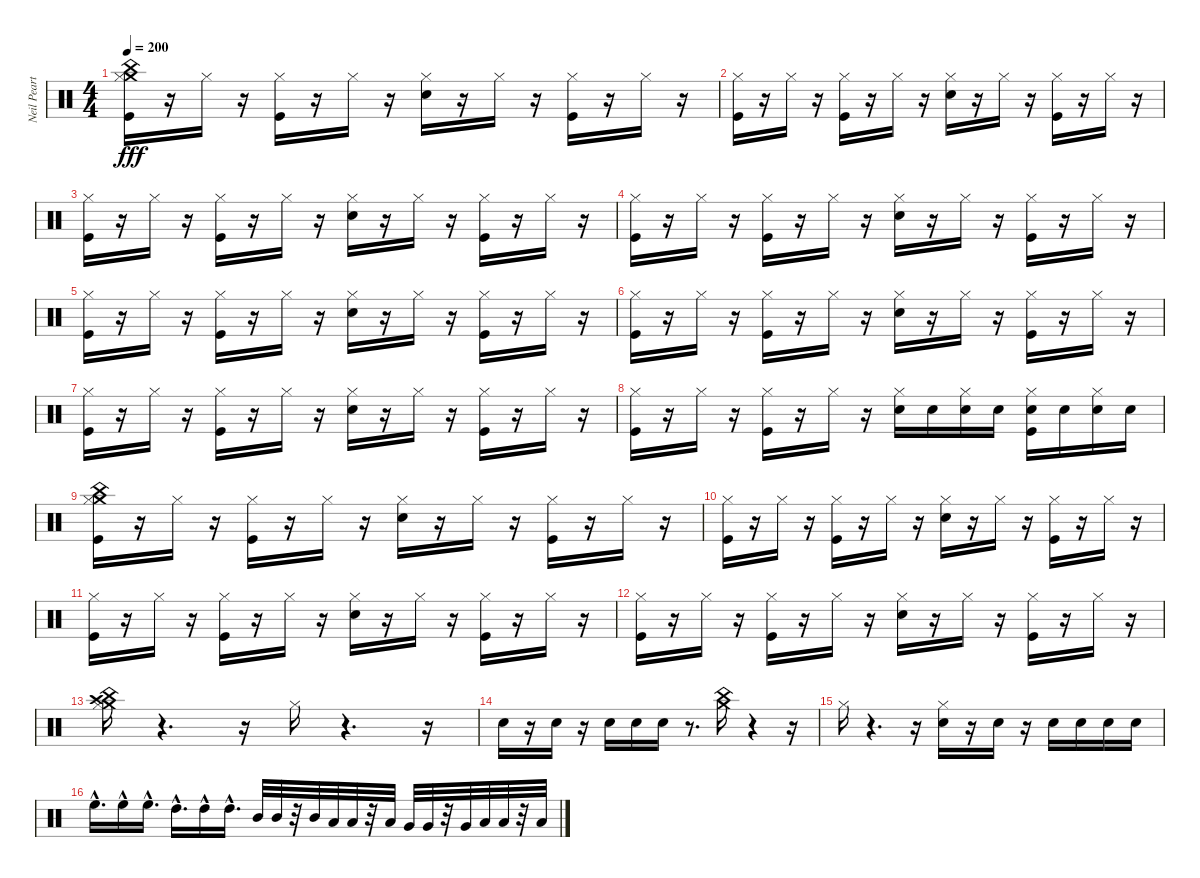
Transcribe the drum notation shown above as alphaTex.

\track ("Neil Peart" "Neil Peart") {instrument percussion}
\staff {score}
\articulation defaults
\ts (4 4)
\tempo 200
\clef neutral
\ks c
("Crash medium (hit)" "China (hit)" "Hi-Hat (closed)" "Kick (hit)").16{dy fff} r.16 "Hi-Hat (closed)".16 r.16 ("Hi-Hat (closed)" "Kick (hit)").16 r.16 "Hi-Hat (closed)".16 r.16 ("Hi-Hat (closed)" "Snare (hit) 2").16 r.16 "Hi-Hat (closed)".16 r.16 ("Hi-Hat (closed)" "Kick (hit)").16 r.16 "Hi-Hat (closed)".16 r.16 |
("Hi-Hat (closed)" "Kick (hit)").16 r.16 "Hi-Hat (closed)".16 r.16 ("Hi-Hat (closed)" "Kick (hit)").16 r.16 "Hi-Hat (closed)".16 r.16 ("Hi-Hat (closed)" "Snare (hit) 2").16 r.16 "Hi-Hat (closed)".16 r.16 ("Hi-Hat (closed)" "Kick (hit)").16 r.16 "Hi-Hat (closed)".16 r.16 |
("Hi-Hat (closed)" "Kick (hit)").16 r.16 "Hi-Hat (closed)".16 r.16 ("Hi-Hat (closed)" "Kick (hit)").16 r.16 "Hi-Hat (closed)".16 r.16 ("Hi-Hat (closed)" "Snare (hit) 2").16 r.16 "Hi-Hat (closed)".16 r.16 ("Hi-Hat (closed)" "Kick (hit)").16 r.16 "Hi-Hat (closed)".16 r.16 |
("Hi-Hat (closed)" "Kick (hit)").16 r.16 "Hi-Hat (closed)".16 r.16 ("Hi-Hat (closed)" "Kick (hit)").16 r.16 "Hi-Hat (closed)".16 r.16 ("Hi-Hat (closed)" "Snare (hit) 2").16 r.16 "Hi-Hat (closed)".16 r.16 ("Hi-Hat (closed)" "Kick (hit)").16 r.16 "Hi-Hat (closed)".16 r.16 |
("Hi-Hat (closed)" "Kick (hit)").16 r.16 "Hi-Hat (closed)".16 r.16 ("Hi-Hat (closed)" "Kick (hit)").16 r.16 "Hi-Hat (closed)".16 r.16 ("Hi-Hat (closed)" "Snare (hit) 2").16 r.16 "Hi-Hat (closed)".16 r.16 ("Hi-Hat (closed)" "Kick (hit)").16 r.16 "Hi-Hat (closed)".16 r.16 |
("Hi-Hat (closed)" "Kick (hit)").16 r.16 "Hi-Hat (closed)".16 r.16 ("Hi-Hat (closed)" "Kick (hit)").16 r.16 "Hi-Hat (closed)".16 r.16 ("Hi-Hat (closed)" "Snare (hit) 2").16 r.16 "Hi-Hat (closed)".16 r.16 ("Hi-Hat (closed)" "Kick (hit)").16 r.16 "Hi-Hat (closed)".16 r.16 |
("Hi-Hat (closed)" "Kick (hit)").16 r.16 "Hi-Hat (closed)".16 r.16 ("Hi-Hat (closed)" "Kick (hit)").16 r.16 "Hi-Hat (closed)".16 r.16 ("Hi-Hat (closed)" "Snare (hit) 2").16 r.16 "Hi-Hat (closed)".16 r.16 ("Hi-Hat (closed)" "Kick (hit)").16 r.16 "Hi-Hat (closed)".16 r.16 |
("Hi-Hat (closed)" "Kick (hit)").16 r.16 "Hi-Hat (closed)".16 r.16 ("Hi-Hat (closed)" "Kick (hit)").16 r.16 "Hi-Hat (closed)".16 r.16 ("Hi-Hat (closed)" "Snare (hit) 2").16 "Snare (hit) 2".16 ("Hi-Hat (closed)" "Snare (hit) 2").16 "Snare (hit) 2".16 ("Hi-Hat (closed)" "Snare (hit) 2" "Kick (hit)").16 "Snare (hit) 2".16 ("Hi-Hat (closed)" "Snare (hit) 2").16 "Snare (hit) 2".16 |
("Crash medium (hit)" "China (hit)" "Hi-Hat (closed)" "Kick (hit)").16 r.16 "Hi-Hat (closed)".16 r.16 ("Hi-Hat (closed)" "Kick (hit)").16 r.16 "Hi-Hat (closed)".16 r.16 ("Hi-Hat (closed)" "Snare (hit) 2").16 r.16 "Hi-Hat (closed)".16 r.16 ("Hi-Hat (closed)" "Kick (hit)").16 r.16 "Hi-Hat (closed)".16 r.16 |
("Hi-Hat (closed)" "Kick (hit)").16 r.16 "Hi-Hat (closed)".16 r.16 ("Hi-Hat (closed)" "Kick (hit)").16 r.16 "Hi-Hat (closed)".16 r.16 ("Hi-Hat (closed)" "Snare (hit) 2").16 r.16 "Hi-Hat (closed)".16 r.16 ("Hi-Hat (closed)" "Kick (hit)").16 r.16 "Hi-Hat (closed)".16 r.16 |
("Hi-Hat (closed)" "Kick (hit)").16 r.16 "Hi-Hat (closed)".16 r.16 ("Hi-Hat (closed)" "Kick (hit)").16 r.16 "Hi-Hat (closed)".16 r.16 ("Hi-Hat (closed)" "Snare (hit) 2").16 r.16 "Hi-Hat (closed)".16 r.16 ("Hi-Hat (closed)" "Kick (hit)").16 r.16 "Hi-Hat (closed)".16 r.16 |
("Hi-Hat (closed)" "Kick (hit)").16 r.16 "Hi-Hat (closed)".16 r.16 ("Hi-Hat (closed)" "Kick (hit)").16 r.16 "Hi-Hat (closed)".16 r.16 ("Hi-Hat (closed)" "Snare (hit) 2").16 r.16 "Hi-Hat (closed)".16 r.16 ("Hi-Hat (closed)" "Kick (hit)").16 r.16 "Hi-Hat (closed)".16 r.16 |
("Crash medium (hit)" "China (hit)" "Crash high (hit)" "Hi-Hat (closed)").16 r.4{d} r.16 "Hi-Hat (closed)".16 r.4{d} r.16 |
"Electric Snare (hit)".16 r.16 "Electric Snare (hit)".16 r.16 "Electric Snare (hit)".16 "Electric Snare (hit)".16 "Electric Snare (hit)".16 r.8{d} ("Crash medium (hit)" "China (hit)").16 r.4 r.16 |
"Hi-Hat (closed)".16 r.4{d} r.16 ("Hi-Hat (closed)" "Electric Snare (hit)").16 r.16 "Electric Snare (hit)".16 r.16 "Electric Snare (hit)".16 "Electric Snare (hit)".16 "Electric Snare (hit)".16 "Electric Snare (hit)".16 |
"High Floor Tom (hit)"{hac}.16{d} "High Floor Tom (hit)"{hac}.16 "High Floor Tom (hit)"{hac}.16{d} "High Tom (hit)"{hac}.16{d} "High Tom (hit)"{hac}.16 "High Tom (hit)"{hac}.16{d} "Mid Tom (hit)".32 "Mid Tom (hit)".32 r.32 "Mid Tom (hit)".32 "Low Tom (hit)".32 "Low Tom (hit)".32 r.32 "Low Tom (hit)".32 "Very Low Tom (hit)".32 "Very Low Tom (hit)".32 r.32 "Very Low Tom (hit)".32 "Low Floor Tom (hit)".32 "Low Floor Tom (hit)".32 r.32 "Low Floor Tom (hit)".32
